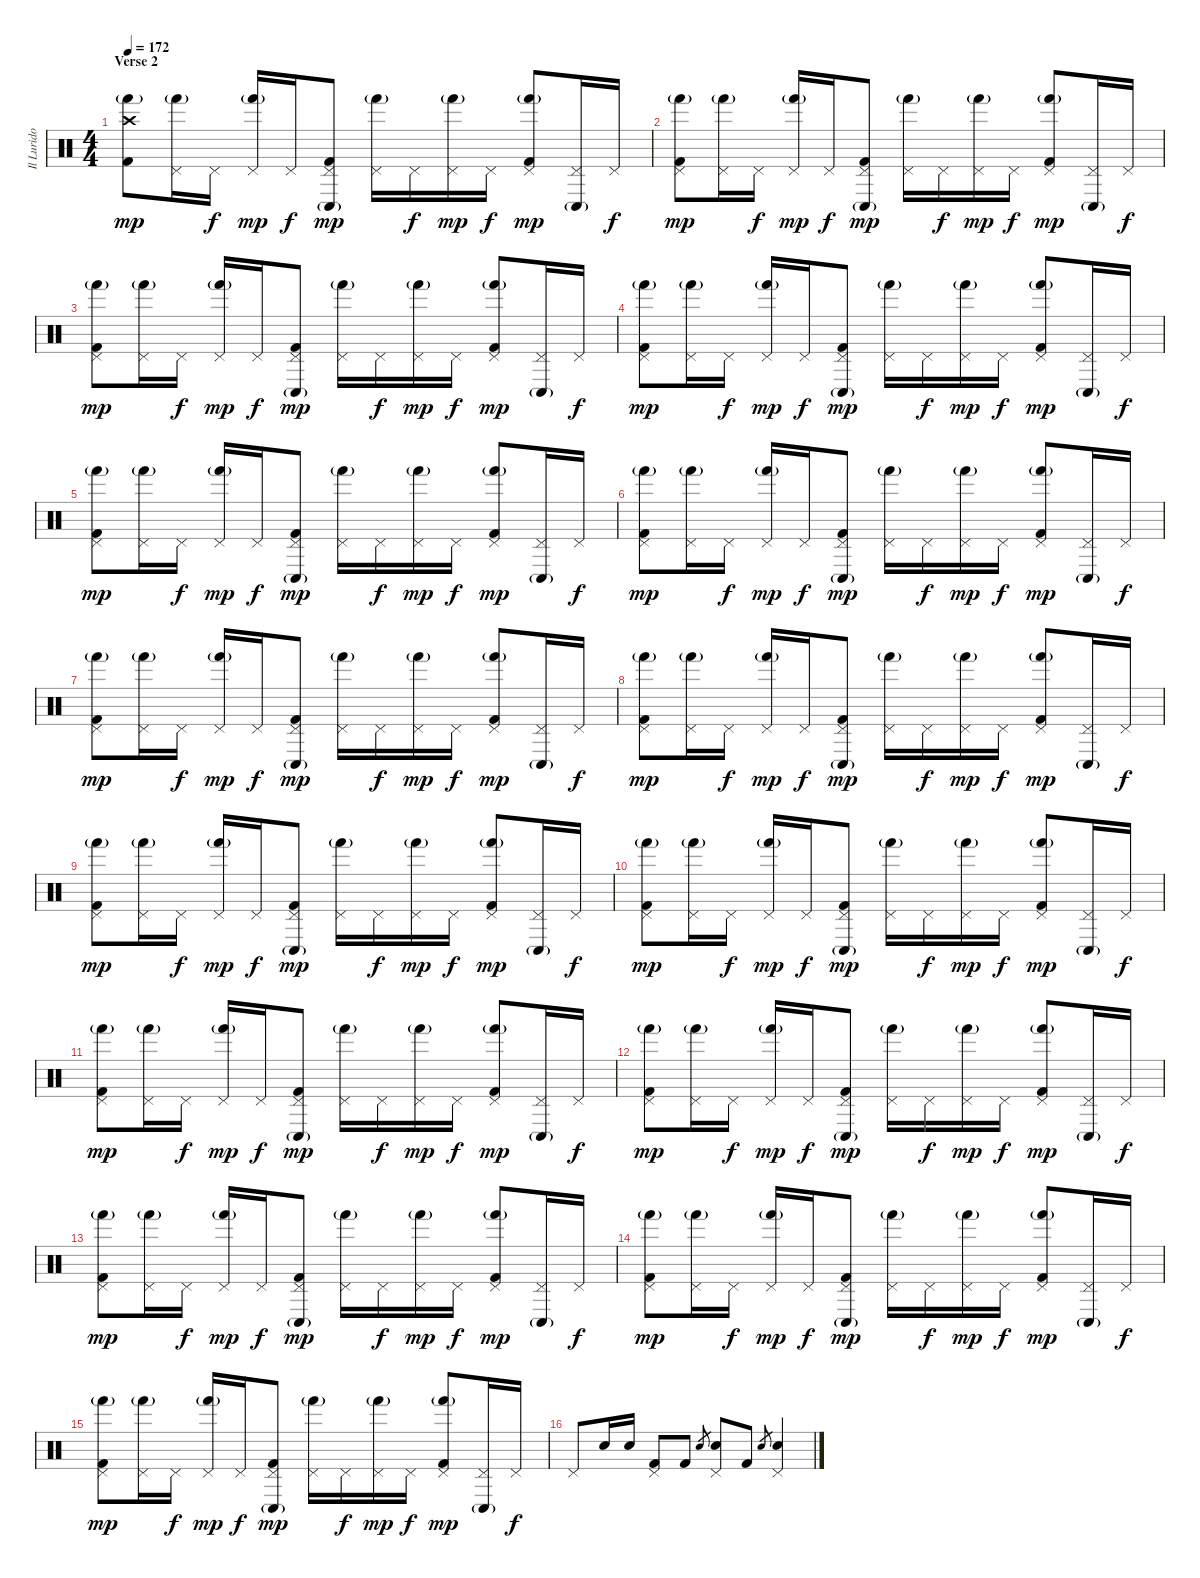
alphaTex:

\track ("Il Lurido Cavernicolo (Drums)" "Il Lurido ") {instrument percussion}
\staff {score}
\articulation defaults
\ts (4 4)
\section ("" "Verse 2")
\tempo 172
\clef neutral
\ks c
("Crash high (hit)" "Hand (hit)"{g} "Kick (hit) 2").8{dy mp} ("Pedal Hi-Hat (hit)" "Hand (hit)"{g}).16 "Pedal Hi-Hat (hit)".16{dy f} ("Pedal Hi-Hat (hit)" "Hand (hit)"{g}).16{dy mp} "Pedal Hi-Hat (hit)".16{dy f} ("Pedal Hi-Hat (hit)" "Conga low (hit)"{g} "Kick (hit) 2").8{dy mp} ("Pedal Hi-Hat (hit)" "Hand (hit)"{g}).16 "Pedal Hi-Hat (hit)".16{dy f} ("Pedal Hi-Hat (hit)" "Hand (hit)"{g}).16{dy mp} "Pedal Hi-Hat (hit)".16{dy f} ("Pedal Hi-Hat (hit)" "Hand (hit)"{g} "Kick (hit) 2").8{dy mp} ("Pedal Hi-Hat (hit)" "Conga low (hit)"{g}).16 "Pedal Hi-Hat (hit)".16{dy f} |
("Pedal Hi-Hat (hit)" "Hand (hit)"{g} "Kick (hit) 2").8{dy mp} ("Pedal Hi-Hat (hit)" "Hand (hit)"{g}).16 "Pedal Hi-Hat (hit)".16{dy f} ("Pedal Hi-Hat (hit)" "Hand (hit)"{g}).16{dy mp} "Pedal Hi-Hat (hit)".16{dy f} ("Pedal Hi-Hat (hit)" "Conga low (hit)"{g} "Kick (hit) 2").8{dy mp} ("Pedal Hi-Hat (hit)" "Hand (hit)"{g}).16 "Pedal Hi-Hat (hit)".16{dy f} ("Pedal Hi-Hat (hit)" "Hand (hit)"{g}).16{dy mp} "Pedal Hi-Hat (hit)".16{dy f} ("Pedal Hi-Hat (hit)" "Hand (hit)"{g} "Kick (hit) 2").8{dy mp} ("Pedal Hi-Hat (hit)" "Conga low (hit)"{g}).16 "Pedal Hi-Hat (hit)".16{dy f} |
("Pedal Hi-Hat (hit)" "Hand (hit)"{g} "Kick (hit) 2").8{dy mp} ("Pedal Hi-Hat (hit)" "Hand (hit)"{g}).16 "Pedal Hi-Hat (hit)".16{dy f} ("Pedal Hi-Hat (hit)" "Hand (hit)"{g}).16{dy mp} "Pedal Hi-Hat (hit)".16{dy f} ("Pedal Hi-Hat (hit)" "Conga low (hit)"{g} "Kick (hit) 2").8{dy mp} ("Pedal Hi-Hat (hit)" "Hand (hit)"{g}).16 "Pedal Hi-Hat (hit)".16{dy f} ("Pedal Hi-Hat (hit)" "Hand (hit)"{g}).16{dy mp} "Pedal Hi-Hat (hit)".16{dy f} ("Pedal Hi-Hat (hit)" "Hand (hit)"{g} "Kick (hit) 2").8{dy mp} ("Pedal Hi-Hat (hit)" "Conga low (hit)"{g}).16 "Pedal Hi-Hat (hit)".16{dy f} |
("Pedal Hi-Hat (hit)" "Hand (hit)"{g} "Kick (hit) 2").8{dy mp} ("Pedal Hi-Hat (hit)" "Hand (hit)"{g}).16 "Pedal Hi-Hat (hit)".16{dy f} ("Pedal Hi-Hat (hit)" "Hand (hit)"{g}).16{dy mp} "Pedal Hi-Hat (hit)".16{dy f} ("Pedal Hi-Hat (hit)" "Conga low (hit)"{g} "Kick (hit) 2").8{dy mp} ("Pedal Hi-Hat (hit)" "Hand (hit)"{g}).16 "Pedal Hi-Hat (hit)".16{dy f} ("Pedal Hi-Hat (hit)" "Hand (hit)"{g}).16{dy mp} "Pedal Hi-Hat (hit)".16{dy f} ("Pedal Hi-Hat (hit)" "Hand (hit)"{g} "Kick (hit) 2").8{dy mp} ("Pedal Hi-Hat (hit)" "Conga low (hit)"{g}).16 "Pedal Hi-Hat (hit)".16{dy f} |
("Pedal Hi-Hat (hit)" "Hand (hit)"{g} "Kick (hit) 2").8{dy mp} ("Pedal Hi-Hat (hit)" "Hand (hit)"{g}).16 "Pedal Hi-Hat (hit)".16{dy f} ("Pedal Hi-Hat (hit)" "Hand (hit)"{g}).16{dy mp} "Pedal Hi-Hat (hit)".16{dy f} ("Pedal Hi-Hat (hit)" "Conga low (hit)"{g} "Kick (hit) 2").8{dy mp} ("Pedal Hi-Hat (hit)" "Hand (hit)"{g}).16 "Pedal Hi-Hat (hit)".16{dy f} ("Pedal Hi-Hat (hit)" "Hand (hit)"{g}).16{dy mp} "Pedal Hi-Hat (hit)".16{dy f} ("Pedal Hi-Hat (hit)" "Hand (hit)"{g} "Kick (hit) 2").8{dy mp} ("Pedal Hi-Hat (hit)" "Conga low (hit)"{g}).16 "Pedal Hi-Hat (hit)".16{dy f} |
("Pedal Hi-Hat (hit)" "Hand (hit)"{g} "Kick (hit) 2").8{dy mp} ("Pedal Hi-Hat (hit)" "Hand (hit)"{g}).16 "Pedal Hi-Hat (hit)".16{dy f} ("Pedal Hi-Hat (hit)" "Hand (hit)"{g}).16{dy mp} "Pedal Hi-Hat (hit)".16{dy f} ("Pedal Hi-Hat (hit)" "Conga low (hit)"{g} "Kick (hit) 2").8{dy mp} ("Pedal Hi-Hat (hit)" "Hand (hit)"{g}).16 "Pedal Hi-Hat (hit)".16{dy f} ("Pedal Hi-Hat (hit)" "Hand (hit)"{g}).16{dy mp} "Pedal Hi-Hat (hit)".16{dy f} ("Pedal Hi-Hat (hit)" "Hand (hit)"{g} "Kick (hit) 2").8{dy mp} ("Pedal Hi-Hat (hit)" "Conga low (hit)"{g}).16 "Pedal Hi-Hat (hit)".16{dy f} |
("Pedal Hi-Hat (hit)" "Hand (hit)"{g} "Kick (hit) 2").8{dy mp} ("Pedal Hi-Hat (hit)" "Hand (hit)"{g}).16 "Pedal Hi-Hat (hit)".16{dy f} ("Pedal Hi-Hat (hit)" "Hand (hit)"{g}).16{dy mp} "Pedal Hi-Hat (hit)".16{dy f} ("Pedal Hi-Hat (hit)" "Conga low (hit)"{g} "Kick (hit) 2").8{dy mp} ("Pedal Hi-Hat (hit)" "Hand (hit)"{g}).16 "Pedal Hi-Hat (hit)".16{dy f} ("Pedal Hi-Hat (hit)" "Hand (hit)"{g}).16{dy mp} "Pedal Hi-Hat (hit)".16{dy f} ("Pedal Hi-Hat (hit)" "Hand (hit)"{g} "Kick (hit) 2").8{dy mp} ("Pedal Hi-Hat (hit)" "Conga low (hit)"{g}).16 "Pedal Hi-Hat (hit)".16{dy f} |
("Pedal Hi-Hat (hit)" "Hand (hit)"{g} "Kick (hit) 2").8{dy mp} ("Pedal Hi-Hat (hit)" "Hand (hit)"{g}).16 "Pedal Hi-Hat (hit)".16{dy f} ("Pedal Hi-Hat (hit)" "Hand (hit)"{g}).16{dy mp} "Pedal Hi-Hat (hit)".16{dy f} ("Pedal Hi-Hat (hit)" "Conga low (hit)"{g} "Kick (hit) 2").8{dy mp} ("Pedal Hi-Hat (hit)" "Hand (hit)"{g}).16 "Pedal Hi-Hat (hit)".16{dy f} ("Pedal Hi-Hat (hit)" "Hand (hit)"{g}).16{dy mp} "Pedal Hi-Hat (hit)".16{dy f} ("Pedal Hi-Hat (hit)" "Hand (hit)"{g} "Kick (hit) 2").8{dy mp} ("Pedal Hi-Hat (hit)" "Conga low (hit)"{g}).16 "Pedal Hi-Hat (hit)".16{dy f} |
("Pedal Hi-Hat (hit)" "Hand (hit)"{g} "Kick (hit) 2").8{dy mp} ("Pedal Hi-Hat (hit)" "Hand (hit)"{g}).16 "Pedal Hi-Hat (hit)".16{dy f} ("Pedal Hi-Hat (hit)" "Hand (hit)"{g}).16{dy mp} "Pedal Hi-Hat (hit)".16{dy f} ("Pedal Hi-Hat (hit)" "Conga low (hit)"{g} "Kick (hit) 2").8{dy mp} ("Pedal Hi-Hat (hit)" "Hand (hit)"{g}).16 "Pedal Hi-Hat (hit)".16{dy f} ("Pedal Hi-Hat (hit)" "Hand (hit)"{g}).16{dy mp} "Pedal Hi-Hat (hit)".16{dy f} ("Pedal Hi-Hat (hit)" "Hand (hit)"{g} "Kick (hit) 2").8{dy mp} ("Pedal Hi-Hat (hit)" "Conga low (hit)"{g}).16 "Pedal Hi-Hat (hit)".16{dy f} |
("Pedal Hi-Hat (hit)" "Hand (hit)"{g} "Kick (hit) 2").8{dy mp} ("Pedal Hi-Hat (hit)" "Hand (hit)"{g}).16 "Pedal Hi-Hat (hit)".16{dy f} ("Pedal Hi-Hat (hit)" "Hand (hit)"{g}).16{dy mp} "Pedal Hi-Hat (hit)".16{dy f} ("Pedal Hi-Hat (hit)" "Conga low (hit)"{g} "Kick (hit) 2").8{dy mp} ("Pedal Hi-Hat (hit)" "Hand (hit)"{g}).16 "Pedal Hi-Hat (hit)".16{dy f} ("Pedal Hi-Hat (hit)" "Hand (hit)"{g}).16{dy mp} "Pedal Hi-Hat (hit)".16{dy f} ("Pedal Hi-Hat (hit)" "Hand (hit)"{g} "Kick (hit) 2").8{dy mp} ("Pedal Hi-Hat (hit)" "Conga low (hit)"{g}).16 "Pedal Hi-Hat (hit)".16{dy f} |
("Pedal Hi-Hat (hit)" "Hand (hit)"{g} "Kick (hit) 2").8{dy mp} ("Pedal Hi-Hat (hit)" "Hand (hit)"{g}).16 "Pedal Hi-Hat (hit)".16{dy f} ("Pedal Hi-Hat (hit)" "Hand (hit)"{g}).16{dy mp} "Pedal Hi-Hat (hit)".16{dy f} ("Pedal Hi-Hat (hit)" "Conga low (hit)"{g} "Kick (hit) 2").8{dy mp} ("Pedal Hi-Hat (hit)" "Hand (hit)"{g}).16 "Pedal Hi-Hat (hit)".16{dy f} ("Pedal Hi-Hat (hit)" "Hand (hit)"{g}).16{dy mp} "Pedal Hi-Hat (hit)".16{dy f} ("Pedal Hi-Hat (hit)" "Hand (hit)"{g} "Kick (hit) 2").8{dy mp} ("Pedal Hi-Hat (hit)" "Conga low (hit)"{g}).16 "Pedal Hi-Hat (hit)".16{dy f} |
("Pedal Hi-Hat (hit)" "Hand (hit)"{g} "Kick (hit) 2").8{dy mp} ("Pedal Hi-Hat (hit)" "Hand (hit)"{g}).16 "Pedal Hi-Hat (hit)".16{dy f} ("Pedal Hi-Hat (hit)" "Hand (hit)"{g}).16{dy mp} "Pedal Hi-Hat (hit)".16{dy f} ("Pedal Hi-Hat (hit)" "Conga low (hit)"{g} "Kick (hit) 2").8{dy mp} ("Pedal Hi-Hat (hit)" "Hand (hit)"{g}).16 "Pedal Hi-Hat (hit)".16{dy f} ("Pedal Hi-Hat (hit)" "Hand (hit)"{g}).16{dy mp} "Pedal Hi-Hat (hit)".16{dy f} ("Pedal Hi-Hat (hit)" "Hand (hit)"{g} "Kick (hit) 2").8{dy mp} ("Pedal Hi-Hat (hit)" "Conga low (hit)"{g}).16 "Pedal Hi-Hat (hit)".16{dy f} |
("Pedal Hi-Hat (hit)" "Hand (hit)"{g} "Kick (hit) 2").8{dy mp} ("Pedal Hi-Hat (hit)" "Hand (hit)"{g}).16 "Pedal Hi-Hat (hit)".16{dy f} ("Pedal Hi-Hat (hit)" "Hand (hit)"{g}).16{dy mp} "Pedal Hi-Hat (hit)".16{dy f} ("Pedal Hi-Hat (hit)" "Conga low (hit)"{g} "Kick (hit) 2").8{dy mp} ("Pedal Hi-Hat (hit)" "Hand (hit)"{g}).16 "Pedal Hi-Hat (hit)".16{dy f} ("Pedal Hi-Hat (hit)" "Hand (hit)"{g}).16{dy mp} "Pedal Hi-Hat (hit)".16{dy f} ("Pedal Hi-Hat (hit)" "Hand (hit)"{g} "Kick (hit) 2").8{dy mp} ("Pedal Hi-Hat (hit)" "Conga low (hit)"{g}).16 "Pedal Hi-Hat (hit)".16{dy f} |
("Pedal Hi-Hat (hit)" "Hand (hit)"{g} "Kick (hit) 2").8{dy mp} ("Pedal Hi-Hat (hit)" "Hand (hit)"{g}).16 "Pedal Hi-Hat (hit)".16{dy f} ("Pedal Hi-Hat (hit)" "Hand (hit)"{g}).16{dy mp} "Pedal Hi-Hat (hit)".16{dy f} ("Pedal Hi-Hat (hit)" "Conga low (hit)"{g} "Kick (hit) 2").8{dy mp} ("Pedal Hi-Hat (hit)" "Hand (hit)"{g}).16 "Pedal Hi-Hat (hit)".16{dy f} ("Pedal Hi-Hat (hit)" "Hand (hit)"{g}).16{dy mp} "Pedal Hi-Hat (hit)".16{dy f} ("Pedal Hi-Hat (hit)" "Hand (hit)"{g} "Kick (hit) 2").8{dy mp} ("Pedal Hi-Hat (hit)" "Conga low (hit)"{g}).16 "Pedal Hi-Hat (hit)".16{dy f} |
("Pedal Hi-Hat (hit)" "Hand (hit)"{g} "Kick (hit) 2").8{dy mp} ("Pedal Hi-Hat (hit)" "Hand (hit)"{g}).16 "Pedal Hi-Hat (hit)".16{dy f} ("Pedal Hi-Hat (hit)" "Hand (hit)"{g}).16{dy mp} "Pedal Hi-Hat (hit)".16{dy f} ("Pedal Hi-Hat (hit)" "Conga low (hit)"{g} "Kick (hit) 2").8{dy mp} ("Pedal Hi-Hat (hit)" "Hand (hit)"{g}).16 "Pedal Hi-Hat (hit)".16{dy f} ("Pedal Hi-Hat (hit)" "Hand (hit)"{g}).16{dy mp} "Pedal Hi-Hat (hit)".16{dy f} ("Pedal Hi-Hat (hit)" "Hand (hit)"{g} "Kick (hit) 2").8{dy mp} ("Pedal Hi-Hat (hit)" "Conga low (hit)"{g}).16 "Pedal Hi-Hat (hit)".16{dy f} |
"Pedal Hi-Hat (hit)".8 "Electric Snare (hit)".16 "Electric Snare (hit)".16 ("Pedal Hi-Hat (hit)" "Kick (hit) 2").8 "Kick (hit) 2".8 "Electric Snare (hit)".8{gr} ("Pedal Hi-Hat (hit)" "Electric Snare (hit)").8 "Kick (hit) 2".8 "Electric Snare (hit)".8{gr} ("Pedal Hi-Hat (hit)" "Electric Snare (hit)").4
